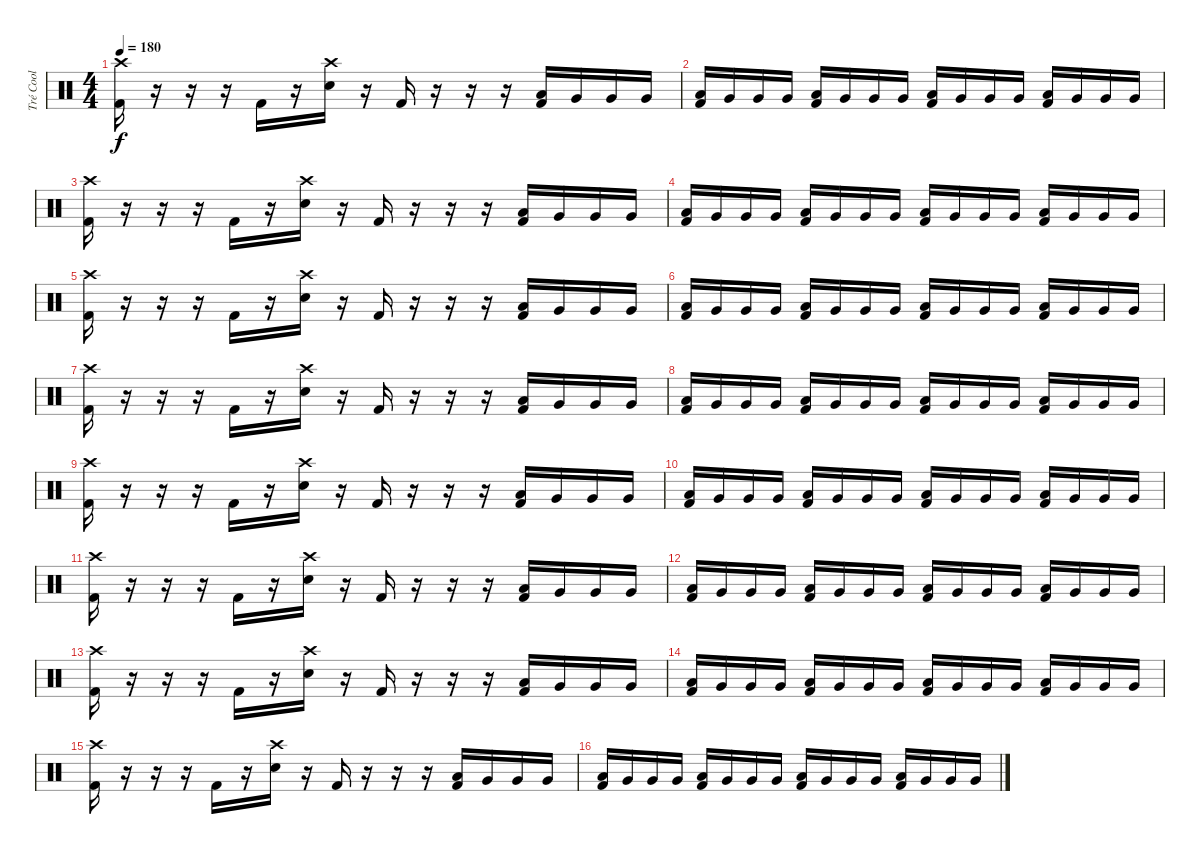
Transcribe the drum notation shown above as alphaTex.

\track ("Tré Cool" "Tré Cool") {instrument percussion}
\staff {score}
\articulation defaults
\ts (4 4)
\tempo 180
\clef neutral
\ks c
("Crash high (hit)" "Kick (hit) 2").16{dy f} r.16 r.16 r.16 "Kick (hit) 2".16 r.16 ("Crash high (hit)" "Snare (hit) 2").16 r.16 "Kick (hit) 2".16 r.16 r.16 r.16 ("Low Tom (hit)" "Kick (hit) 2").16 "Very Low Tom (hit)".16 "Very Low Tom (hit)".16 "Very Low Tom (hit)".16 |
("Low Tom (hit)" "Kick (hit) 2").16 "Very Low Tom (hit)".16 "Very Low Tom (hit)".16 "Very Low Tom (hit)".16 ("Low Tom (hit)" "Kick (hit) 2").16 "Very Low Tom (hit)".16 "Very Low Tom (hit)".16 "Very Low Tom (hit)".16 ("Low Tom (hit)" "Kick (hit) 2").16 "Very Low Tom (hit)".16 "Very Low Tom (hit)".16 "Very Low Tom (hit)".16 ("Low Tom (hit)" "Kick (hit) 2").16 "Very Low Tom (hit)".16 "Very Low Tom (hit)".16 "Very Low Tom (hit)".16 |
("Crash high (hit)" "Kick (hit) 2").16 r.16 r.16 r.16 "Kick (hit) 2".16 r.16 ("Crash high (hit)" "Snare (hit) 2").16 r.16 "Kick (hit) 2".16 r.16 r.16 r.16 ("Low Tom (hit)" "Kick (hit) 2").16 "Very Low Tom (hit)".16 "Very Low Tom (hit)".16 "Very Low Tom (hit)".16 |
("Low Tom (hit)" "Kick (hit) 2").16 "Very Low Tom (hit)".16 "Very Low Tom (hit)".16 "Very Low Tom (hit)".16 ("Low Tom (hit)" "Kick (hit) 2").16 "Very Low Tom (hit)".16 "Very Low Tom (hit)".16 "Very Low Tom (hit)".16 ("Low Tom (hit)" "Kick (hit) 2").16 "Very Low Tom (hit)".16 "Very Low Tom (hit)".16 "Very Low Tom (hit)".16 ("Low Tom (hit)" "Kick (hit) 2").16 "Very Low Tom (hit)".16 "Very Low Tom (hit)".16 "Very Low Tom (hit)".16 |
("Crash high (hit)" "Kick (hit) 2").16 r.16 r.16 r.16 "Kick (hit) 2".16 r.16 ("Crash high (hit)" "Snare (hit) 2").16 r.16 "Kick (hit) 2".16 r.16 r.16 r.16 ("Low Tom (hit)" "Kick (hit) 2").16 "Very Low Tom (hit)".16 "Very Low Tom (hit)".16 "Very Low Tom (hit)".16 |
("Low Tom (hit)" "Kick (hit) 2").16 "Very Low Tom (hit)".16 "Very Low Tom (hit)".16 "Very Low Tom (hit)".16 ("Low Tom (hit)" "Kick (hit) 2").16 "Very Low Tom (hit)".16 "Very Low Tom (hit)".16 "Very Low Tom (hit)".16 ("Low Tom (hit)" "Kick (hit) 2").16 "Very Low Tom (hit)".16 "Very Low Tom (hit)".16 "Very Low Tom (hit)".16 ("Low Tom (hit)" "Kick (hit) 2").16 "Very Low Tom (hit)".16 "Very Low Tom (hit)".16 "Very Low Tom (hit)".16 |
("Crash high (hit)" "Kick (hit) 2").16 r.16 r.16 r.16 "Kick (hit) 2".16 r.16 ("Crash high (hit)" "Snare (hit) 2").16 r.16 "Kick (hit) 2".16 r.16 r.16 r.16 ("Low Tom (hit)" "Kick (hit) 2").16 "Very Low Tom (hit)".16 "Very Low Tom (hit)".16 "Very Low Tom (hit)".16 |
("Low Tom (hit)" "Kick (hit) 2").16 "Very Low Tom (hit)".16 "Very Low Tom (hit)".16 "Very Low Tom (hit)".16 ("Low Tom (hit)" "Kick (hit) 2").16 "Very Low Tom (hit)".16 "Very Low Tom (hit)".16 "Very Low Tom (hit)".16 ("Low Tom (hit)" "Kick (hit) 2").16 "Very Low Tom (hit)".16 "Very Low Tom (hit)".16 "Very Low Tom (hit)".16 ("Low Tom (hit)" "Kick (hit) 2").16 "Very Low Tom (hit)".16 "Very Low Tom (hit)".16 "Very Low Tom (hit)".16 |
("Crash high (hit)" "Kick (hit) 2").16 r.16 r.16 r.16 "Kick (hit) 2".16 r.16 ("Crash high (hit)" "Snare (hit) 2").16 r.16 "Kick (hit) 2".16 r.16 r.16 r.16 ("Low Tom (hit)" "Kick (hit) 2").16 "Very Low Tom (hit)".16 "Very Low Tom (hit)".16 "Very Low Tom (hit)".16 |
("Low Tom (hit)" "Kick (hit) 2").16 "Very Low Tom (hit)".16 "Very Low Tom (hit)".16 "Very Low Tom (hit)".16 ("Low Tom (hit)" "Kick (hit) 2").16 "Very Low Tom (hit)".16 "Very Low Tom (hit)".16 "Very Low Tom (hit)".16 ("Low Tom (hit)" "Kick (hit) 2").16 "Very Low Tom (hit)".16 "Very Low Tom (hit)".16 "Very Low Tom (hit)".16 ("Low Tom (hit)" "Kick (hit) 2").16 "Very Low Tom (hit)".16 "Very Low Tom (hit)".16 "Very Low Tom (hit)".16 |
("Crash high (hit)" "Kick (hit) 2").16 r.16 r.16 r.16 "Kick (hit) 2".16 r.16 ("Crash high (hit)" "Snare (hit) 2").16 r.16 "Kick (hit) 2".16 r.16 r.16 r.16 ("Low Tom (hit)" "Kick (hit) 2").16 "Very Low Tom (hit)".16 "Very Low Tom (hit)".16 "Very Low Tom (hit)".16 |
("Low Tom (hit)" "Kick (hit) 2").16 "Very Low Tom (hit)".16 "Very Low Tom (hit)".16 "Very Low Tom (hit)".16 ("Low Tom (hit)" "Kick (hit) 2").16 "Very Low Tom (hit)".16 "Very Low Tom (hit)".16 "Very Low Tom (hit)".16 ("Low Tom (hit)" "Kick (hit) 2").16 "Very Low Tom (hit)".16 "Very Low Tom (hit)".16 "Very Low Tom (hit)".16 ("Low Tom (hit)" "Kick (hit) 2").16 "Very Low Tom (hit)".16 "Very Low Tom (hit)".16 "Very Low Tom (hit)".16 |
("Crash high (hit)" "Kick (hit) 2").16 r.16 r.16 r.16 "Kick (hit) 2".16 r.16 ("Crash high (hit)" "Snare (hit) 2").16 r.16 "Kick (hit) 2".16 r.16 r.16 r.16 ("Low Tom (hit)" "Kick (hit) 2").16 "Very Low Tom (hit)".16 "Very Low Tom (hit)".16 "Very Low Tom (hit)".16 |
("Low Tom (hit)" "Kick (hit) 2").16 "Very Low Tom (hit)".16 "Very Low Tom (hit)".16 "Very Low Tom (hit)".16 ("Low Tom (hit)" "Kick (hit) 2").16 "Very Low Tom (hit)".16 "Very Low Tom (hit)".16 "Very Low Tom (hit)".16 ("Low Tom (hit)" "Kick (hit) 2").16 "Very Low Tom (hit)".16 "Very Low Tom (hit)".16 "Very Low Tom (hit)".16 ("Low Tom (hit)" "Kick (hit) 2").16 "Very Low Tom (hit)".16 "Very Low Tom (hit)".16 "Very Low Tom (hit)".16 |
("Crash high (hit)" "Kick (hit) 2").16 r.16 r.16 r.16 "Kick (hit) 2".16 r.16 ("Crash high (hit)" "Snare (hit) 2").16 r.16 "Kick (hit) 2".16 r.16 r.16 r.16 ("Low Tom (hit)" "Kick (hit) 2").16 "Very Low Tom (hit)".16 "Very Low Tom (hit)".16 "Very Low Tom (hit)".16 |
("Low Tom (hit)" "Kick (hit) 2").16 "Very Low Tom (hit)".16 "Very Low Tom (hit)".16 "Very Low Tom (hit)".16 ("Low Tom (hit)" "Kick (hit) 2").16 "Very Low Tom (hit)".16 "Very Low Tom (hit)".16 "Very Low Tom (hit)".16 ("Low Tom (hit)" "Kick (hit) 2").16 "Very Low Tom (hit)".16 "Very Low Tom (hit)".16 "Very Low Tom (hit)".16 ("Low Tom (hit)" "Kick (hit) 2").16 "Very Low Tom (hit)".16 "Very Low Tom (hit)".16 "Very Low Tom (hit)".16
